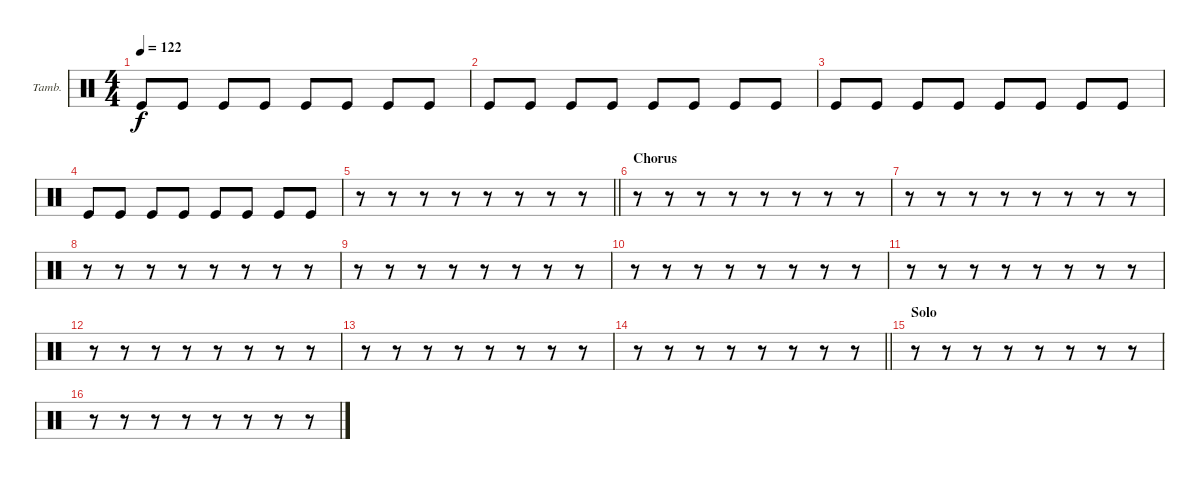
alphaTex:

\bracketExtendMode groupsimilarinstruments
\firstSystemTrackNameOrientation horizontal
\otherSystemsTrackNameOrientation horizontal
\track ("Tambourine" "Tamb.") {instrument percussion}
\staff {score}
\articulation defaults
\ts (4 4)
\tempo 122
\clef neutral
\ks c "Kick (hit)".8{dy f} "Kick (hit)".8 "Kick (hit)".8 "Kick (hit)".8 "Kick (hit)".8 "Kick (hit)".8 "Kick (hit)".8 "Kick (hit)".8
|
"Kick (hit)".8 "Kick (hit)".8 "Kick (hit)".8 "Kick (hit)".8 "Kick (hit)".8 "Kick (hit)".8 "Kick (hit)".8 "Kick (hit)".8 |
"Kick (hit)".8 "Kick (hit)".8 "Kick (hit)".8 "Kick (hit)".8 "Kick (hit)".8 "Kick (hit)".8 "Kick (hit)".8 "Kick (hit)".8 |
"Kick (hit)".8 "Kick (hit)".8 "Kick (hit)".8 "Kick (hit)".8 "Kick (hit)".8 "Kick (hit)".8 "Kick (hit)".8 "Kick (hit)".8 |
\barLineRight lightlight
r.8 r.8 r.8 r.8 r.8 r.8 r.8 r.8 |
\section ("" "Chorus")
r.8 r.8 r.8 r.8 r.8 r.8 r.8 r.8 |
r.8 r.8 r.8 r.8 r.8 r.8 r.8 r.8 |
r.8 r.8 r.8 r.8 r.8 r.8 r.8 r.8 |
r.8 r.8 r.8 r.8 r.8 r.8 r.8 r.8 |
r.8 r.8 r.8 r.8 r.8 r.8 r.8 r.8 |
r.8 r.8 r.8 r.8 r.8 r.8 r.8 r.8 |
r.8 r.8 r.8 r.8 r.8 r.8 r.8 r.8 |
r.8 r.8 r.8 r.8 r.8 r.8 r.8 r.8 |
\barLineRight lightlight
r.8 r.8 r.8 r.8 r.8 r.8 r.8 r.8 |
\section ("" "Solo")
r.8 r.8 r.8 r.8 r.8 r.8 r.8 r.8 |
r.8 r.8 r.8 r.8 r.8 r.8 r.8 r.8
